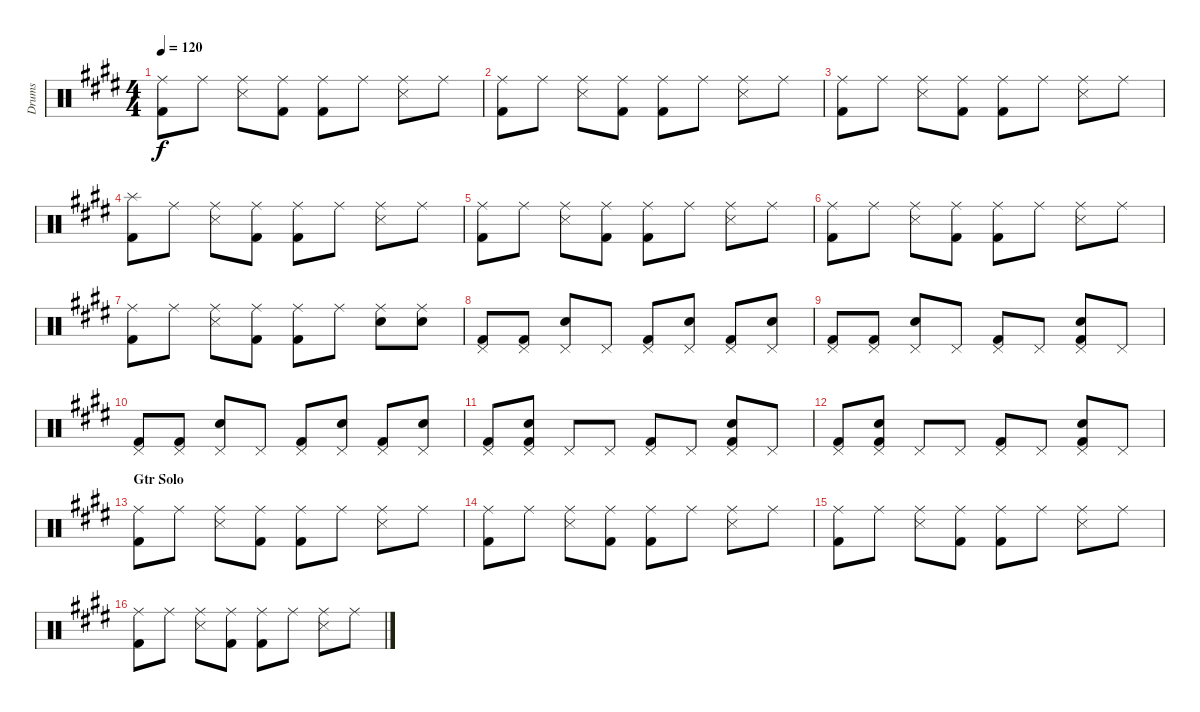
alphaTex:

\track ("Drums" "Drums") {instrument percussion}
\staff {score}
\articulation defaults
\ts (4 4)
\tempo 120
\clef neutral
\ks e
("Ride (middle)" "Kick (hit) 2").8{dy f} "Ride (middle)".8 ("Ride (middle)" "Snare (side stick) 3").8 ("Ride (middle)" "Kick (hit) 2").8 ("Ride (middle)" "Kick (hit) 2").8 "Ride (middle)".8 ("Ride (middle)" "Snare (side stick) 3").8 "Ride (middle)".8 |
("Ride (middle)" "Kick (hit) 2").8 "Ride (middle)".8 ("Ride (middle)" "Snare (side stick) 3").8 ("Ride (middle)" "Kick (hit) 2").8 ("Ride (middle)" "Kick (hit) 2").8 "Ride (middle)".8 ("Ride (middle)" "Snare (side stick) 3").8 "Ride (middle)".8 |
("Ride (middle)" "Kick (hit) 2").8 "Ride (middle)".8 ("Ride (middle)" "Snare (side stick) 3").8 ("Ride (middle)" "Kick (hit) 2").8 ("Ride (middle)" "Kick (hit) 2").8 "Ride (middle)".8 ("Ride (middle)" "Snare (side stick) 3").8 "Ride (middle)".8 |
("Splash (hit)" "Kick (hit) 2").8 "Ride (middle)".8 ("Ride (middle)" "Snare (side stick) 3").8 ("Ride (middle)" "Kick (hit) 2").8 ("Ride (middle)" "Kick (hit) 2").8 "Ride (middle)".8 ("Ride (middle)" "Snare (side stick) 3").8 "Ride (middle)".8 |
("Ride (middle)" "Kick (hit) 2").8 "Ride (middle)".8 ("Ride (middle)" "Snare (side stick) 3").8 ("Ride (middle)" "Kick (hit) 2").8 ("Ride (middle)" "Kick (hit) 2").8 "Ride (middle)".8 ("Ride (middle)" "Snare (side stick) 3").8 "Ride (middle)".8 |
("Ride (middle)" "Kick (hit) 2").8 "Ride (middle)".8 ("Ride (middle)" "Snare (side stick) 3").8 ("Ride (middle)" "Kick (hit) 2").8 ("Ride (middle)" "Kick (hit) 2").8 "Ride (middle)".8 ("Ride (middle)" "Snare (side stick) 3").8 "Ride (middle)".8 |
("Ride (middle)" "Kick (hit) 2").8 "Ride (middle)".8 ("Ride (middle)" "Snare (side stick) 3").8 ("Ride (middle)" "Kick (hit) 2").8 ("Ride (middle)" "Kick (hit) 2").8 "Ride (middle)".8 ("Ride (middle)" "Snare (hit) 2").8 ("Ride (middle)" "Snare (hit) 2").8 |
("Pedal Hi-Hat (hit)" "Kick (hit) 2").8 ("Pedal Hi-Hat (hit)" "Kick (hit) 2").8 ("Pedal Hi-Hat (hit)" "Snare (hit) 2").8 "Pedal Hi-Hat (hit)".8 ("Pedal Hi-Hat (hit)" "Kick (hit) 2").8 ("Pedal Hi-Hat (hit)" "Snare (hit) 2").8 ("Pedal Hi-Hat (hit)" "Kick (hit) 2").8 ("Pedal Hi-Hat (hit)" "Snare (hit) 2").8 |
("Pedal Hi-Hat (hit)" "Kick (hit) 2").8 ("Pedal Hi-Hat (hit)" "Kick (hit) 2").8 ("Pedal Hi-Hat (hit)" "Snare (hit) 2").8 "Pedal Hi-Hat (hit)".8 ("Pedal Hi-Hat (hit)" "Kick (hit) 2").8 "Pedal Hi-Hat (hit)".8 ("Pedal Hi-Hat (hit)" "Snare (hit) 2" "Kick (hit) 2").8 "Pedal Hi-Hat (hit)".8 |
("Pedal Hi-Hat (hit)" "Kick (hit) 2").8 ("Pedal Hi-Hat (hit)" "Kick (hit) 2").8 ("Pedal Hi-Hat (hit)" "Snare (hit) 2").8 "Pedal Hi-Hat (hit)".8 ("Pedal Hi-Hat (hit)" "Kick (hit) 2").8 ("Pedal Hi-Hat (hit)" "Snare (hit) 2").8 ("Pedal Hi-Hat (hit)" "Kick (hit) 2").8 ("Pedal Hi-Hat (hit)" "Snare (hit) 2").8 |
("Pedal Hi-Hat (hit)" "Kick (hit) 2").8 ("Pedal Hi-Hat (hit)" "Snare (hit) 2" "Kick (hit) 2").8 "Pedal Hi-Hat (hit)".8 "Pedal Hi-Hat (hit)".8 ("Pedal Hi-Hat (hit)" "Kick (hit) 2").8 "Pedal Hi-Hat (hit)".8 ("Pedal Hi-Hat (hit)" "Snare (hit) 2" "Kick (hit) 2").8 "Pedal Hi-Hat (hit)".8 |
("Pedal Hi-Hat (hit)" "Kick (hit) 2").8 ("Pedal Hi-Hat (hit)" "Snare (hit) 2" "Kick (hit) 2").8 "Pedal Hi-Hat (hit)".8 "Pedal Hi-Hat (hit)".8 ("Pedal Hi-Hat (hit)" "Kick (hit) 2").8 "Pedal Hi-Hat (hit)".8 ("Pedal Hi-Hat (hit)" "Snare (hit) 2" "Kick (hit) 2").8 "Pedal Hi-Hat (hit)".8 |
\section ("" "Gtr Solo")
("Ride (middle)" "Kick (hit) 2").8 "Ride (middle)".8 ("Ride (middle)" "Snare (side stick) 3").8 ("Ride (middle)" "Kick (hit) 2").8 ("Ride (middle)" "Kick (hit) 2").8 "Ride (middle)".8 ("Ride (middle)" "Snare (side stick) 3").8 "Ride (middle)".8 |
("Ride (middle)" "Kick (hit) 2").8 "Ride (middle)".8 ("Ride (middle)" "Snare (side stick) 3").8 ("Ride (middle)" "Kick (hit) 2").8 ("Ride (middle)" "Kick (hit) 2").8 "Ride (middle)".8 ("Ride (middle)" "Snare (side stick) 3").8 "Ride (middle)".8 |
("Ride (middle)" "Kick (hit) 2").8 "Ride (middle)".8 ("Ride (middle)" "Snare (side stick) 3").8 ("Ride (middle)" "Kick (hit) 2").8 ("Ride (middle)" "Kick (hit) 2").8 "Ride (middle)".8 ("Ride (middle)" "Snare (side stick) 3").8 "Ride (middle)".8 |
("Ride (middle)" "Kick (hit) 2").8 "Ride (middle)".8 ("Ride (middle)" "Snare (side stick) 3").8 ("Ride (middle)" "Kick (hit) 2").8 ("Ride (middle)" "Kick (hit) 2").8 "Ride (middle)".8 ("Ride (middle)" "Snare (side stick) 3").8 "Ride (middle)".8
